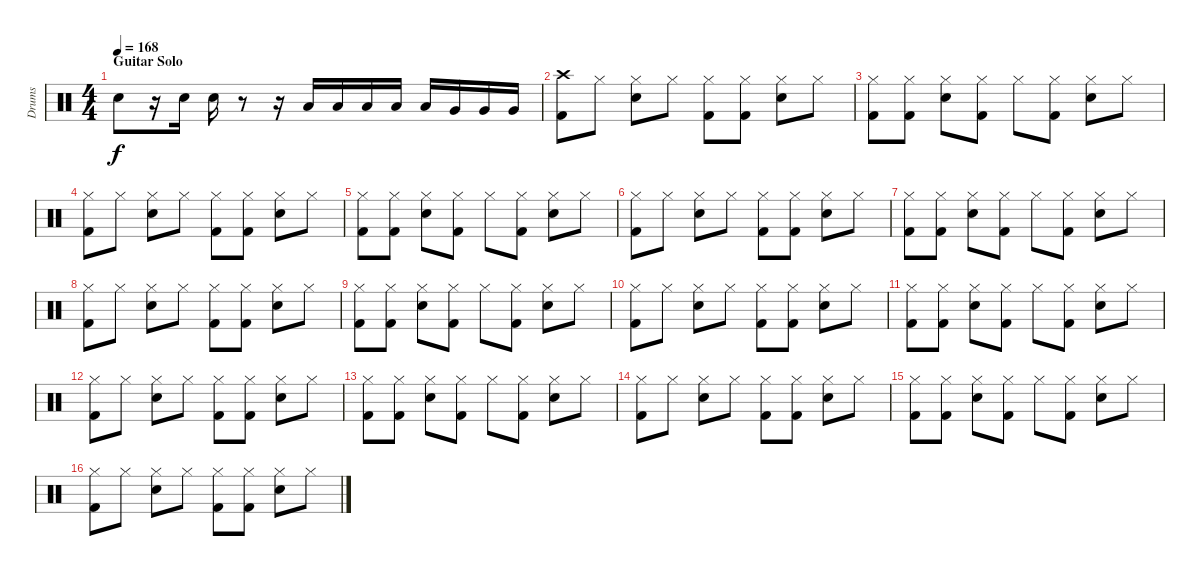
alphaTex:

\track ("Drums" "Drums") {instrument percussion}
\staff {score}
\articulation defaults
\ts (4 4)
\section ("" "Guitar Solo")
\tempo 168
\clef neutral
\ks c "Electric Snare (hit)".8{dy f}
r.16 "Electric Snare (hit)".16 "Electric Snare (hit)".16 r.8 r.16 "Low Tom (hit)".16 "Low Tom (hit)".16 "Low Tom (hit)".16 "Low Tom (hit)".16 "Low Tom (hit)".16 "Very Low Tom (hit)".16 "Very Low Tom (hit)".16 "Very Low Tom (hit)".16 |
("Crash high (hit)" "Kick (hit) 2").8 "Hi-Hat (closed)".8 ("Hi-Hat (closed)" "Electric Snare (hit)").8 "Hi-Hat (closed)".8 ("Hi-Hat (closed)" "Kick (hit) 2").8 ("Hi-Hat (closed)" "Kick (hit) 2").8 ("Hi-Hat (closed)" "Electric Snare (hit)").8 "Hi-Hat (closed)".8 |
("Hi-Hat (closed)" "Kick (hit) 2").8 ("Hi-Hat (closed)" "Kick (hit) 2").8 ("Hi-Hat (closed)" "Electric Snare (hit)").8 ("Hi-Hat (closed)" "Kick (hit) 2").8 "Hi-Hat (closed)".8 ("Hi-Hat (closed)" "Kick (hit) 2").8 ("Hi-Hat (closed)" "Electric Snare (hit)").8 "Hi-Hat (closed)".8 |
("Hi-Hat (closed)" "Kick (hit) 2").8 "Hi-Hat (closed)".8 ("Hi-Hat (closed)" "Electric Snare (hit)").8 "Hi-Hat (closed)".8 ("Hi-Hat (closed)" "Kick (hit) 2").8 ("Hi-Hat (closed)" "Kick (hit) 2").8 ("Hi-Hat (closed)" "Electric Snare (hit)").8 "Hi-Hat (closed)".8 |
("Hi-Hat (closed)" "Kick (hit) 2").8 ("Hi-Hat (closed)" "Kick (hit) 2").8 ("Hi-Hat (closed)" "Electric Snare (hit)").8 ("Hi-Hat (closed)" "Kick (hit) 2").8 "Hi-Hat (closed)".8 ("Hi-Hat (closed)" "Kick (hit) 2").8 ("Hi-Hat (closed)" "Electric Snare (hit)").8 "Hi-Hat (closed)".8 |
("Hi-Hat (closed)" "Kick (hit) 2").8 "Hi-Hat (closed)".8 ("Hi-Hat (closed)" "Electric Snare (hit)").8 "Hi-Hat (closed)".8 ("Hi-Hat (closed)" "Kick (hit) 2").8 ("Hi-Hat (closed)" "Kick (hit) 2").8 ("Hi-Hat (closed)" "Electric Snare (hit)").8 "Hi-Hat (closed)".8 |
("Hi-Hat (closed)" "Kick (hit) 2").8 ("Hi-Hat (closed)" "Kick (hit) 2").8 ("Hi-Hat (closed)" "Electric Snare (hit)").8 ("Hi-Hat (closed)" "Kick (hit) 2").8 "Hi-Hat (closed)".8 ("Hi-Hat (closed)" "Kick (hit) 2").8 ("Hi-Hat (closed)" "Electric Snare (hit)").8 "Hi-Hat (closed)".8 |
("Hi-Hat (closed)" "Kick (hit) 2").8 "Hi-Hat (closed)".8 ("Hi-Hat (closed)" "Electric Snare (hit)").8 "Hi-Hat (closed)".8 ("Hi-Hat (closed)" "Kick (hit) 2").8 ("Hi-Hat (closed)" "Kick (hit) 2").8 ("Hi-Hat (closed)" "Electric Snare (hit)").8 "Hi-Hat (closed)".8 |
("Hi-Hat (closed)" "Kick (hit) 2").8 ("Hi-Hat (closed)" "Kick (hit) 2").8 ("Hi-Hat (closed)" "Electric Snare (hit)").8 ("Hi-Hat (closed)" "Kick (hit) 2").8 "Hi-Hat (closed)".8 ("Hi-Hat (closed)" "Kick (hit) 2").8 ("Hi-Hat (closed)" "Electric Snare (hit)").8 "Hi-Hat (closed)".8 |
("Hi-Hat (closed)" "Kick (hit) 2").8 "Hi-Hat (closed)".8 ("Hi-Hat (closed)" "Electric Snare (hit)").8 "Hi-Hat (closed)".8 ("Hi-Hat (closed)" "Kick (hit) 2").8 ("Hi-Hat (closed)" "Kick (hit) 2").8 ("Hi-Hat (closed)" "Electric Snare (hit)").8 "Hi-Hat (closed)".8 |
("Hi-Hat (closed)" "Kick (hit) 2").8 ("Hi-Hat (closed)" "Kick (hit) 2").8 ("Hi-Hat (closed)" "Electric Snare (hit)").8 ("Hi-Hat (closed)" "Kick (hit) 2").8 "Hi-Hat (closed)".8 ("Hi-Hat (closed)" "Kick (hit) 2").8 ("Hi-Hat (closed)" "Electric Snare (hit)").8 "Hi-Hat (closed)".8 |
("Hi-Hat (closed)" "Kick (hit) 2").8 "Hi-Hat (closed)".8 ("Hi-Hat (closed)" "Electric Snare (hit)").8 "Hi-Hat (closed)".8 ("Hi-Hat (closed)" "Kick (hit) 2").8 ("Hi-Hat (closed)" "Kick (hit) 2").8 ("Hi-Hat (closed)" "Electric Snare (hit)").8 "Hi-Hat (closed)".8 |
("Hi-Hat (closed)" "Kick (hit) 2").8 ("Hi-Hat (closed)" "Kick (hit) 2").8 ("Hi-Hat (closed)" "Electric Snare (hit)").8 ("Hi-Hat (closed)" "Kick (hit) 2").8 "Hi-Hat (closed)".8 ("Hi-Hat (closed)" "Kick (hit) 2").8 ("Hi-Hat (closed)" "Electric Snare (hit)").8 "Hi-Hat (closed)".8 |
("Hi-Hat (closed)" "Kick (hit) 2").8 "Hi-Hat (closed)".8 ("Hi-Hat (closed)" "Electric Snare (hit)").8 "Hi-Hat (closed)".8 ("Hi-Hat (closed)" "Kick (hit) 2").8 ("Hi-Hat (closed)" "Kick (hit) 2").8 ("Hi-Hat (closed)" "Electric Snare (hit)").8 "Hi-Hat (closed)".8 |
("Hi-Hat (closed)" "Kick (hit) 2").8 ("Hi-Hat (closed)" "Kick (hit) 2").8 ("Hi-Hat (closed)" "Electric Snare (hit)").8 ("Hi-Hat (closed)" "Kick (hit) 2").8 "Hi-Hat (closed)".8 ("Hi-Hat (closed)" "Kick (hit) 2").8 ("Hi-Hat (closed)" "Electric Snare (hit)").8 "Hi-Hat (closed)".8 |
("Hi-Hat (closed)" "Kick (hit) 2").8 "Hi-Hat (closed)".8 ("Hi-Hat (closed)" "Electric Snare (hit)").8 "Hi-Hat (closed)".8 ("Hi-Hat (closed)" "Kick (hit) 2").8 ("Hi-Hat (closed)" "Kick (hit) 2").8 ("Hi-Hat (closed)" "Electric Snare (hit)").8 "Hi-Hat (closed)".8
